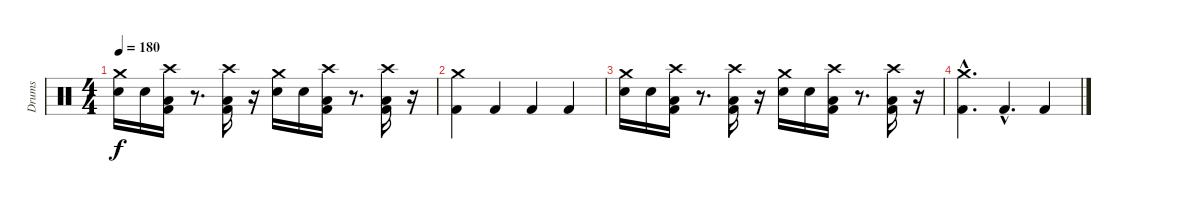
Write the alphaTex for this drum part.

\track ("Drums" "Drums") {instrument percussion}
\staff {score}
\articulation defaults
\ts (4 4)
\tempo 180
\clef neutral
\ks c
("Crash medium (hit)" "Electric Snare (hit)").16{dy f} "Electric Snare (hit)".16 ("Crash high (hit)" "Low Floor Tom (hit)" "Kick (hit) 2").16 r.8{d} ("Crash high (hit)" "Low Floor Tom (hit)" "Kick (hit) 2").16 r.16 ("Crash medium (hit)" "Electric Snare (hit)").16 "Electric Snare (hit)".16 ("Crash high (hit)" "Low Floor Tom (hit)" "Kick (hit) 2").16 r.8{d} ("Crash high (hit)" "Low Floor Tom (hit)" "Kick (hit) 2").16 r.16 |
("Crash medium (hit)" "Kick (hit) 2").4 "Kick (hit) 2".4 "Kick (hit) 2".4 "Kick (hit) 2".4 |
("Crash medium (hit)" "Electric Snare (hit)").16 "Electric Snare (hit)".16 ("Crash high (hit)" "Low Floor Tom (hit)" "Kick (hit) 2").16 r.8{d} ("Crash high (hit)" "Low Floor Tom (hit)" "Kick (hit) 2").16 r.16 ("Crash medium (hit)" "Electric Snare (hit)").16 "Electric Snare (hit)".16 ("Crash high (hit)" "Low Floor Tom (hit)" "Kick (hit) 2").16 r.8{d} ("Crash high (hit)" "Low Floor Tom (hit)" "Kick (hit) 2").16 r.16 |
("Crash medium (hit)"{hac} "Kick (hit) 2"{hac}).4{d} "Kick (hit) 2"{hac}.4{d} "Kick (hit) 2".4
